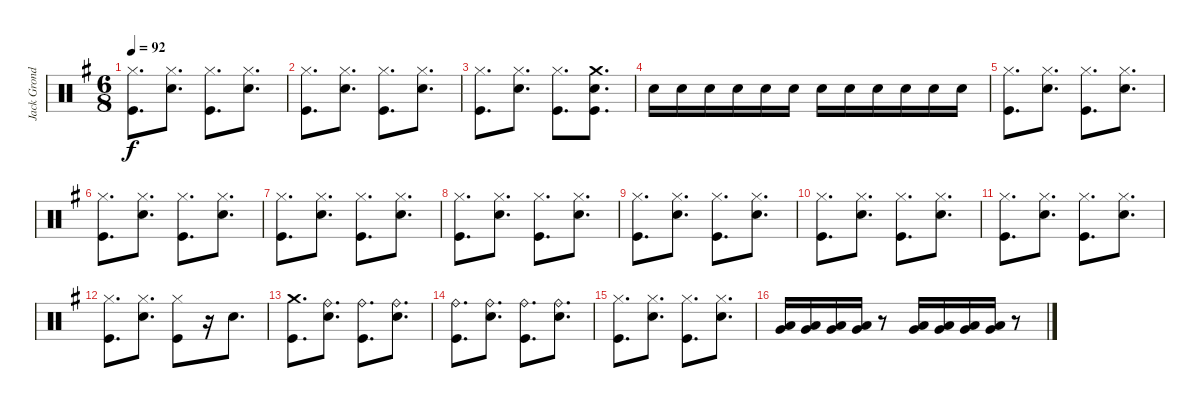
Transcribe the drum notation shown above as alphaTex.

\track ("Jack Grondin Drums" "Jack Grond") {instrument percussion}
\staff {score}
\articulation defaults
\ts (6 8)
\tempo 92
\clef neutral
\ks g
("Hi-Hat (closed)" "Kick (hit)").8{d dy f} ("Hi-Hat (closed)" "Snare (hit) 2").8{d} ("Hi-Hat (closed)" "Kick (hit)").8{d} ("Hi-Hat (closed)" "Snare (hit) 2").8{d} |
("Hi-Hat (closed)" "Kick (hit)").8{d} ("Hi-Hat (closed)" "Snare (hit) 2").8{d} ("Hi-Hat (closed)" "Kick (hit)").8{d} ("Hi-Hat (closed)" "Snare (hit) 2").8{d} |
("Hi-Hat (closed)" "Kick (hit)").8{d} ("Hi-Hat (closed)" "Snare (hit) 2").8{d} ("Hi-Hat (closed)" "Kick (hit)").8{d} ("Crash medium (hit)" "Snare (hit) 2" "Kick (hit)").8{d} |
"Snare (hit) 2".16 "Snare (hit) 2".16 "Snare (hit) 2".16 "Snare (hit) 2".16 "Snare (hit) 2".16 "Snare (hit) 2".16 "Snare (hit) 2".16 "Snare (hit) 2".16 "Snare (hit) 2".16 "Snare (hit) 2".16 "Snare (hit) 2".16 "Snare (hit) 2".16 |
("Hi-Hat (closed)" "Kick (hit)").8{d} ("Hi-Hat (closed)" "Snare (hit) 2").8{d} ("Hi-Hat (closed)" "Kick (hit)").8{d} ("Hi-Hat (closed)" "Snare (hit) 2").8{d} |
("Hi-Hat (closed)" "Kick (hit)").8{d} ("Hi-Hat (closed)" "Snare (hit) 2").8{d} ("Hi-Hat (closed)" "Kick (hit)").8{d} ("Hi-Hat (closed)" "Snare (hit) 2").8{d} |
("Hi-Hat (closed)" "Kick (hit)").8{d} ("Hi-Hat (closed)" "Snare (hit) 2").8{d} ("Hi-Hat (closed)" "Kick (hit)").8{d} ("Hi-Hat (closed)" "Snare (hit) 2").8{d} |
("Hi-Hat (closed)" "Kick (hit)").8{d} ("Hi-Hat (closed)" "Snare (hit) 2").8{d} ("Hi-Hat (closed)" "Kick (hit)").8{d} ("Hi-Hat (closed)" "Snare (hit) 2").8{d} |
("Hi-Hat (closed)" "Kick (hit)").8{d} ("Hi-Hat (closed)" "Snare (hit) 2").8{d} ("Hi-Hat (closed)" "Kick (hit)").8{d} ("Hi-Hat (closed)" "Snare (hit) 2").8{d} |
("Hi-Hat (closed)" "Kick (hit)").8{d} ("Hi-Hat (closed)" "Snare (hit) 2").8{d} ("Hi-Hat (closed)" "Kick (hit)").8{d} ("Hi-Hat (closed)" "Snare (hit) 2").8{d} |
("Hi-Hat (closed)" "Kick (hit)").8{d} ("Hi-Hat (closed)" "Snare (hit) 2").8{d} ("Hi-Hat (closed)" "Kick (hit)").8{d} ("Hi-Hat (closed)" "Snare (hit) 2").8{d} |
("Hi-Hat (closed)" "Kick (hit)").8{d} ("Hi-Hat (closed)" "Snare (hit) 2").8{d} ("Hi-Hat (closed)" "Kick (hit)").8 r.16 "Snare (hit) 2".8{d} |
("Crash medium (hit)" "Kick (hit)").8{d} ("Ride (bell)" "Snare (hit) 2").8{d} ("Ride (bell)" "Kick (hit)").8{d} ("Ride (bell)" "Snare (hit) 2").8{d} |
("Ride (bell)" "Kick (hit)").8{d} ("Ride (bell)" "Snare (hit) 2").8{d} ("Ride (bell)" "Kick (hit)").8{d} ("Ride (bell)" "Snare (hit) 2").8{d} |
("Hi-Hat (closed)" "Kick (hit)").8{d} ("Hi-Hat (closed)" "Snare (hit) 2").8{d} ("Hi-Hat (closed)" "Kick (hit)").8{d} ("Hi-Hat (closed)" "Snare (hit) 2").8{d} |
("Low Tom (hit)" "Very Low Tom (hit)").16 ("Low Tom (hit)" "Very Low Tom (hit)").16 ("Low Tom (hit)" "Very Low Tom (hit)").16 ("Low Tom (hit)" "Very Low Tom (hit)").16 r.8 ("Very Low Tom (hit)" "Low Floor Tom (hit)").16 ("Very Low Tom (hit)" "Low Floor Tom (hit)").16 ("Very Low Tom (hit)" "Low Floor Tom (hit)").16 ("Very Low Tom (hit)" "Low Floor Tom (hit)").16 r.8
